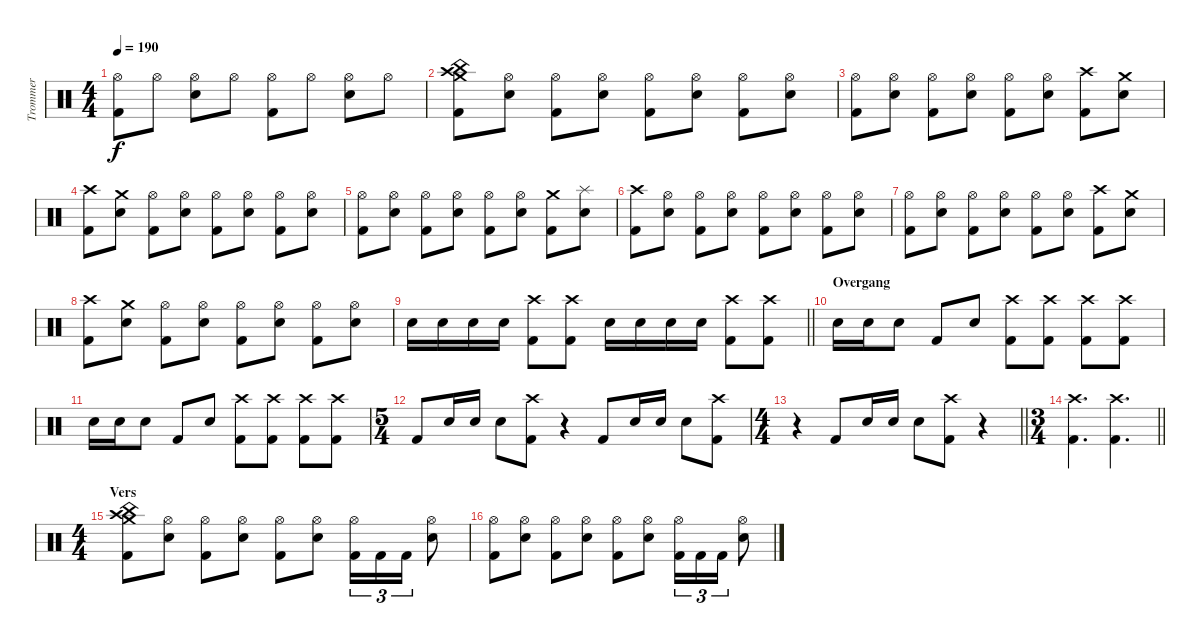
\track ("Trommer" "Trommer") {instrument percussion}
\staff {score}
\articulation defaults
\ts (4 4)
\tempo 190
\clef neutral
\ks c
("Hi-Hat (open)" "Kick (hit) 2").8{dy f} "Hi-Hat (open)".8 ("Hi-Hat (open)" "Snare (hit) 2").8 "Hi-Hat (open)".8 ("Hi-Hat (open)" "Kick (hit) 2").8 "Hi-Hat (open)".8 ("Hi-Hat (open)" "Snare (hit) 2").8 "Hi-Hat (open)".8 |
("Crash medium (hit)" "Crash high (hit)" "China (hit)" "Kick (hit) 2").8 ("Hi-Hat (open)" "Snare (hit) 2").8 ("Hi-Hat (open)" "Kick (hit) 2").8 ("Hi-Hat (open)" "Snare (hit) 2").8 ("Hi-Hat (open)" "Kick (hit) 2").8 ("Hi-Hat (open)" "Snare (hit) 2").8 ("Hi-Hat (open)" "Kick (hit) 2").8 ("Hi-Hat (open)" "Snare (hit) 2").8 |
("Hi-Hat (open)" "Kick (hit) 2").8 ("Hi-Hat (open)" "Snare (hit) 2").8 ("Hi-Hat (open)" "Kick (hit) 2").8 ("Hi-Hat (open)" "Snare (hit) 2").8 ("Hi-Hat (open)" "Kick (hit) 2").8 ("Hi-Hat (open)" "Snare (hit) 2").8 ("Crash high (hit)" "Kick (hit) 2").8 ("Crash medium (hit)" "Snare (hit) 2").8 |
("Crash high (hit)" "Kick (hit) 2").8 ("Crash medium (hit)" "Snare (hit) 2").8 ("Hi-Hat (open)" "Kick (hit) 2").8 ("Hi-Hat (open)" "Snare (hit) 2").8 ("Hi-Hat (open)" "Kick (hit) 2").8 ("Hi-Hat (open)" "Snare (hit) 2").8 ("Hi-Hat (open)" "Kick (hit) 2").8 ("Hi-Hat (open)" "Snare (hit) 2").8 |
("Hi-Hat (open)" "Kick (hit) 2").8 ("Hi-Hat (open)" "Snare (hit) 2").8 ("Hi-Hat (open)" "Kick (hit) 2").8 ("Hi-Hat (open)" "Snare (hit) 2").8 ("Hi-Hat (open)" "Kick (hit) 2").8 ("Hi-Hat (open)" "Snare (hit) 2").8 ("Crash medium (hit)" "Kick (hit) 2").8 ("Splash (hit)" "Snare (hit) 2").8 |
("Crash high (hit)" "Kick (hit) 2").8 ("Hi-Hat (open)" "Snare (hit) 2").8 ("Hi-Hat (open)" "Kick (hit) 2").8 ("Hi-Hat (open)" "Snare (hit) 2").8 ("Hi-Hat (open)" "Kick (hit) 2").8 ("Hi-Hat (open)" "Snare (hit) 2").8 ("Hi-Hat (open)" "Kick (hit) 2").8 ("Hi-Hat (open)" "Snare (hit) 2").8 |
("Hi-Hat (open)" "Kick (hit) 2").8 ("Hi-Hat (open)" "Snare (hit) 2").8 ("Hi-Hat (open)" "Kick (hit) 2").8 ("Hi-Hat (open)" "Snare (hit) 2").8 ("Hi-Hat (open)" "Kick (hit) 2").8 ("Hi-Hat (open)" "Snare (hit) 2").8 ("Crash high (hit)" "Kick (hit) 2").8 ("Crash medium (hit)" "Snare (hit) 2").8 |
("Crash high (hit)" "Kick (hit) 2").8 ("Crash medium (hit)" "Snare (hit) 2").8 ("Hi-Hat (open)" "Kick (hit) 2").8 ("Hi-Hat (open)" "Snare (hit) 2").8 ("Hi-Hat (open)" "Kick (hit) 2").8 ("Hi-Hat (open)" "Snare (hit) 2").8 ("Hi-Hat (open)" "Kick (hit) 2").8 ("Hi-Hat (open)" "Snare (hit) 2").8 |
\barLineRight lightlight "Snare (hit) 2".16 "Snare (hit) 2".16 "Snare (hit) 2".16 "Snare (hit) 2".16
("Crash high (hit)" "Kick (hit) 2").8 ("Crash high (hit)" "Kick (hit) 2").8 "Snare (hit) 2".16 "Snare (hit) 2".16 "Snare (hit) 2".16 "Snare (hit) 2".16 ("Crash high (hit)" "Kick (hit) 2").8 ("Crash high (hit)" "Kick (hit) 2").8 |
\section ("" "Overgang")
"Snare (hit) 2".16 "Snare (hit) 2".16 "Snare (hit) 2".8 "Kick (hit) 2".8 "Snare (hit) 2".8 ("Crash high (hit)" "Kick (hit) 2").8 ("Crash high (hit)" "Kick (hit) 2").8 ("Crash high (hit)" "Kick (hit) 2").8 ("Crash high (hit)" "Kick (hit) 2").8 |
"Snare (hit) 2".16 "Snare (hit) 2".16 "Snare (hit) 2".8 "Kick (hit) 2".8 "Snare (hit) 2".8 ("Crash high (hit)" "Kick (hit) 2").8 ("Crash high (hit)" "Kick (hit) 2").8 ("Crash high (hit)" "Kick (hit) 2").8 ("Crash high (hit)" "Kick (hit) 2").8 |
\ts (5 4)
"Kick (hit) 2".8 "Snare (hit) 2".16 "Snare (hit) 2".16 "Snare (hit) 2".8 ("Crash high (hit)" "Kick (hit) 2").8 r.4 "Kick (hit) 2".8 "Snare (hit) 2".16 "Snare (hit) 2".16 "Snare (hit) 2".8 ("Crash high (hit)" "Kick (hit) 2").8 |
\ts (4 4)
\barLineRight lightlight
r.4 "Kick (hit) 2".8 "Snare (hit) 2".16 "Snare (hit) 2".16 "Snare (hit) 2".8 ("Crash high (hit)" "Kick (hit) 2").8 r.4 |
\ts (3 4)
\barLineRight lightlight
("Crash high (hit)" "Kick (hit) 2").4{d} ("Crash high (hit)" "Kick (hit) 2").4{d} |
\ts (4 4)
\section ("" "Vers")
("Crash medium (hit)" "Crash high (hit)" "China (hit)" "Kick (hit) 2").8 ("Hi-Hat (open)" "Snare (hit) 2").8 ("Hi-Hat (open)" "Kick (hit) 2").8 ("Hi-Hat (open)" "Snare (hit) 2").8 ("Hi-Hat (open)" "Kick (hit) 2").8 ("Hi-Hat (open)" "Snare (hit) 2").8 ("Hi-Hat (open)" "Kick (hit) 2").16{tu (3 2)} "Kick (hit) 2".16{tu (3 2)} "Kick (hit) 2".16{tu (3 2)} ("Hi-Hat (open)" "Snare (hit) 2").8 |
("Hi-Hat (open)" "Kick (hit) 2").8 ("Hi-Hat (open)" "Snare (hit) 2").8 ("Hi-Hat (open)" "Kick (hit) 2").8 ("Hi-Hat (open)" "Snare (hit) 2").8 ("Hi-Hat (open)" "Kick (hit) 2").8 ("Hi-Hat (open)" "Snare (hit) 2").8 ("Hi-Hat (open)" "Kick (hit) 2").16{tu (3 2)} "Kick (hit) 2".16{tu (3 2)} "Kick (hit) 2".16{tu (3 2)} ("Hi-Hat (open)" "Snare (hit) 2").8
